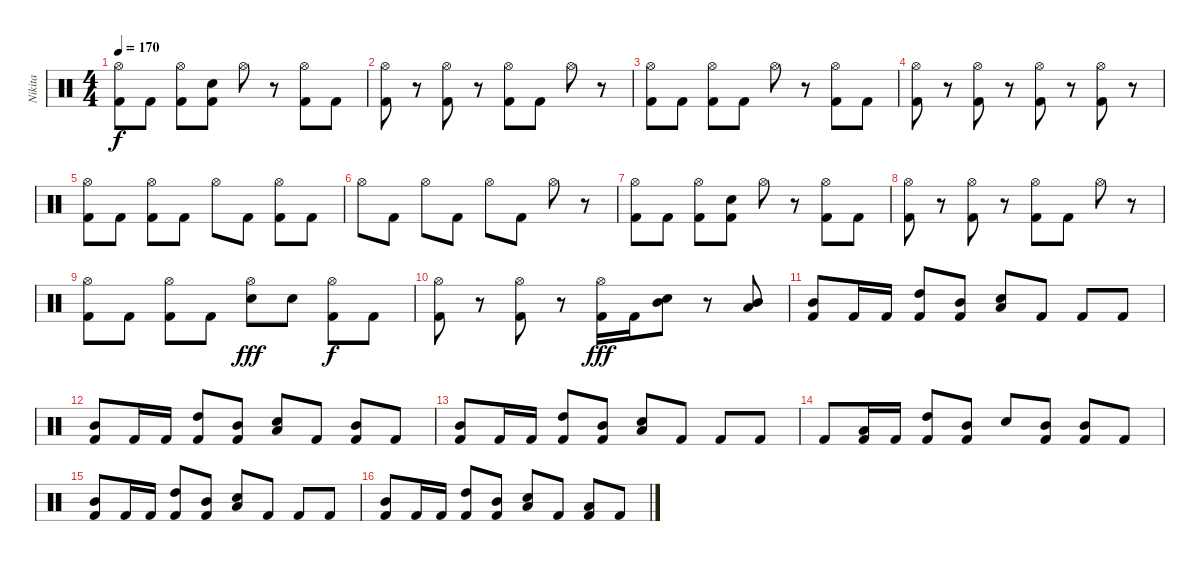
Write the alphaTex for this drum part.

\track ("Nikita" "Nikita") {instrument percussion}
\staff {score}
\articulation defaults
\ts (4 4)
\tempo 170
\clef neutral
\ks c
("Hi-Hat (open)" "Kick (hit) 2").8{dy f} "Kick (hit) 2".8 ("Hi-Hat (open)" "Kick (hit) 2").8 ("Electric Snare (hit)" "Kick (hit) 2").8 "Hi-Hat (open)".8 r.8 ("Hi-Hat (open)" "Kick (hit) 2").8 "Kick (hit) 2".8 |
("Hi-Hat (open)" "Kick (hit) 2").8 r.8 ("Hi-Hat (open)" "Kick (hit) 2").8 r.8 ("Hi-Hat (open)" "Kick (hit) 2").8 "Kick (hit) 2".8 "Hi-Hat (open)".8 r.8 |
("Hi-Hat (open)" "Kick (hit) 2").8 "Kick (hit) 2".8 ("Hi-Hat (open)" "Kick (hit) 2").8 "Kick (hit) 2".8 "Hi-Hat (open)".8 r.8 ("Hi-Hat (open)" "Kick (hit) 2").8 "Kick (hit) 2".8 |
("Hi-Hat (open)" "Kick (hit) 2").8 r.8 ("Hi-Hat (open)" "Kick (hit) 2").8 r.8 ("Hi-Hat (open)" "Kick (hit) 2").8 r.8 ("Hi-Hat (open)" "Kick (hit) 2").8 r.8 |
("Hi-Hat (open)" "Kick (hit) 2").8 "Kick (hit) 2".8 ("Hi-Hat (open)" "Kick (hit) 2").8 "Kick (hit) 2".8 "Hi-Hat (open)".8 "Kick (hit) 2".8 ("Hi-Hat (open)" "Kick (hit) 2").8 "Kick (hit) 2".8 |
"Hi-Hat (open)".8 "Kick (hit) 2".8 "Hi-Hat (open)".8 "Kick (hit) 2".8 "Hi-Hat (open)".8 "Kick (hit) 2".8 "Hi-Hat (open)".8 r.8 |
("Hi-Hat (open)" "Kick (hit) 2").8 "Kick (hit) 2".8 ("Hi-Hat (open)" "Kick (hit) 2").8 ("Electric Snare (hit)" "Kick (hit) 2").8 "Hi-Hat (open)".8 r.8 ("Hi-Hat (open)" "Kick (hit) 2").8 "Kick (hit) 2".8 |
("Hi-Hat (open)" "Kick (hit) 2").8 r.8 ("Hi-Hat (open)" "Kick (hit) 2").8 r.8 ("Hi-Hat (open)" "Kick (hit) 2").8 "Kick (hit) 2".8 "Hi-Hat (open)".8 r.8 |
("Hi-Hat (open)" "Kick (hit) 2").8 "Kick (hit) 2".8 ("Hi-Hat (open)" "Kick (hit) 2").8 "Kick (hit) 2".8 ("Hi-Hat (open)" "Electric Snare (hit)").8{dy fff} "Electric Snare (hit)".8 ("Hi-Hat (open)" "Kick (hit) 2").8{dy f} "Kick (hit) 2".8 |
("Hi-Hat (open)" "Kick (hit) 2").8 r.8 ("Hi-Hat (open)" "Kick (hit) 2").8 r.8 ("Hi-Hat (open)" "Kick (hit) 2").16{dy fff} "Kick (hit) 2".16 ("Mid Tom (hit)" "Electric Snare (hit)").8 r.8 ("Low Tom (hit)" "Mid Tom (hit)").8 |
("Mid Tom (hit)" "Kick (hit) 2").8 "Kick (hit) 2".16 "Kick (hit) 2".16 ("High Tom (hit)" "Kick (hit) 2").8 ("Mid Tom (hit)" "Kick (hit) 2").8 ("Low Tom (hit)" "Electric Snare (hit)").8 "Kick (hit) 2".8 "Kick (hit) 2".8 "Kick (hit) 2".8 |
("Mid Tom (hit)" "Kick (hit) 2").8 "Kick (hit) 2".16 "Kick (hit) 2".16 ("High Tom (hit)" "Kick (hit) 2").8 ("Mid Tom (hit)" "Kick (hit) 2").8 ("Low Tom (hit)" "Electric Snare (hit)").8 "Kick (hit) 2".8 ("Mid Tom (hit)" "Kick (hit) 2").8 "Kick (hit) 2".8 |
("Mid Tom (hit)" "Kick (hit) 2").8 "Kick (hit) 2".16 "Kick (hit) 2".16 ("High Tom (hit)" "Kick (hit) 2").8 ("Mid Tom (hit)" "Kick (hit) 2").8 ("Low Tom (hit)" "Electric Snare (hit)").8 "Kick (hit) 2".8 "Kick (hit) 2".8 "Kick (hit) 2".8 |
"Kick (hit) 2".8 ("Low Tom (hit)" "Kick (hit) 2").16 "Kick (hit) 2".16 ("High Tom (hit)" "Kick (hit) 2").8 ("Mid Tom (hit)" "Kick (hit) 2").8 "Electric Snare (hit)".8 ("Mid Tom (hit)" "Kick (hit) 2").8 ("Mid Tom (hit)" "Kick (hit) 2").8 "Kick (hit) 2".8 |
("Mid Tom (hit)" "Kick (hit) 2").8 "Kick (hit) 2".16 "Kick (hit) 2".16 ("High Tom (hit)" "Kick (hit) 2").8 ("Mid Tom (hit)" "Kick (hit) 2").8 ("Low Tom (hit)" "Electric Snare (hit)").8 "Kick (hit) 2".8 "Kick (hit) 2".8 "Kick (hit) 2".8 |
("Mid Tom (hit)" "Kick (hit) 2").8 "Kick (hit) 2".16 "Kick (hit) 2".16 ("High Tom (hit)" "Kick (hit) 2").8 ("Mid Tom (hit)" "Kick (hit) 2").8 ("Low Tom (hit)" "Electric Snare (hit)").8 "Kick (hit) 2".8 ("Low Tom (hit)" "Kick (hit) 2").8 "Kick (hit) 2".8
